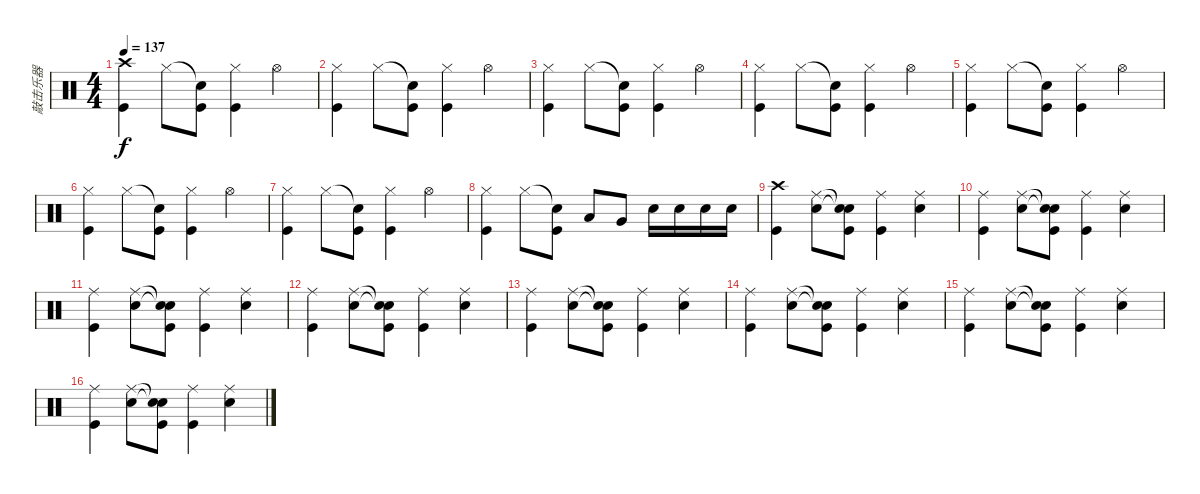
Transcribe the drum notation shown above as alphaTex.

\track ("敲击乐器" "敲击乐器") {instrument percussion}
\staff {score}
\articulation defaults
\ts (4 4)
\tempo 137
\clef neutral
\ks c
("Crash high (hit)" "Kick (hit)").4{dy f} "Hi-Hat (closed)".8 ("Snare (hit)"{t} "Kick (hit)").8 ("Hi-Hat (closed)" "Kick (hit)").4 "Hi-Hat (open)".4 |
("Hi-Hat (closed)" "Kick (hit)").4 "Hi-Hat (closed)".8 ("Snare (hit)"{t} "Kick (hit)").8 ("Hi-Hat (closed)" "Kick (hit)").4 "Hi-Hat (open)".4 |
("Hi-Hat (closed)" "Kick (hit)").4 "Hi-Hat (closed)".8 ("Snare (hit)"{t} "Kick (hit)").8 ("Hi-Hat (closed)" "Kick (hit)").4 "Hi-Hat (open)".4 |
("Hi-Hat (closed)" "Kick (hit)").4 "Hi-Hat (closed)".8 ("Snare (hit)"{t} "Kick (hit)").8 ("Hi-Hat (closed)" "Kick (hit)").4 "Hi-Hat (open)".4 |
("Hi-Hat (closed)" "Kick (hit)").4 "Hi-Hat (closed)".8 ("Snare (hit)"{t} "Kick (hit)").8 ("Hi-Hat (closed)" "Kick (hit)").4 "Hi-Hat (open)".4 |
("Hi-Hat (closed)" "Kick (hit)").4 "Hi-Hat (closed)".8 ("Snare (hit)"{t} "Kick (hit)").8 ("Hi-Hat (closed)" "Kick (hit)").4 "Hi-Hat (open)".4 |
("Hi-Hat (closed)" "Kick (hit)").4 "Hi-Hat (closed)".8 ("Snare (hit)"{t} "Kick (hit)").8 ("Hi-Hat (closed)" "Kick (hit)").4 "Hi-Hat (open)".4 |
("Hi-Hat (closed)" "Kick (hit)").4 "Hi-Hat (closed)".8 ("Snare (hit)"{t} "Kick (hit)").8 "Low Tom (hit)".8 "Very Low Tom (hit)".8 "Snare (hit) 2".16 "Snare (hit) 2".16 "Snare (hit) 2".16 "Snare (hit) 2".16 |
("Crash high (hit)" "Kick (hit)").4 ("Ride (middle)" "Snare (hit) 2").8 ("Snare (hit)"{t} "Snare (hit)"{t} "Kick (hit)").8 ("Ride (middle)" "Kick (hit)").4 ("Ride (middle)" "Snare (hit) 2").4 |
("Ride (middle)" "Kick (hit)").4 ("Ride (middle)" "Snare (hit) 2").8 ("Snare (hit)"{t} "Snare (hit)"{t} "Kick (hit)").8 ("Ride (middle)" "Kick (hit)").4 ("Ride (middle)" "Snare (hit) 2").4 |
("Ride (middle)" "Kick (hit)").4 ("Ride (middle)" "Snare (hit) 2").8 ("Snare (hit)"{t} "Snare (hit)"{t} "Kick (hit)").8 ("Ride (middle)" "Kick (hit)").4 ("Ride (middle)" "Snare (hit) 2").4 |
("Ride (middle)" "Kick (hit)").4 ("Ride (middle)" "Snare (hit) 2").8 ("Snare (hit)"{t} "Snare (hit)"{t} "Kick (hit)").8 ("Ride (middle)" "Kick (hit)").4 ("Ride (middle)" "Snare (hit) 2").4 |
("Ride (middle)" "Kick (hit)").4 ("Ride (middle)" "Snare (hit) 2").8 ("Snare (hit)"{t} "Snare (hit)"{t} "Kick (hit)").8 ("Ride (middle)" "Kick (hit)").4 ("Ride (middle)" "Snare (hit) 2").4 |
("Ride (middle)" "Kick (hit)").4 ("Ride (middle)" "Snare (hit) 2").8 ("Snare (hit)"{t} "Snare (hit)"{t} "Kick (hit)").8 ("Ride (middle)" "Kick (hit)").4 ("Ride (middle)" "Snare (hit) 2").4 |
("Ride (middle)" "Kick (hit)").4 ("Ride (middle)" "Snare (hit) 2").8 ("Snare (hit)"{t} "Snare (hit)"{t} "Kick (hit)").8 ("Ride (middle)" "Kick (hit)").4 ("Ride (middle)" "Snare (hit) 2").4 |
("Ride (middle)" "Kick (hit)").4 ("Ride (middle)" "Snare (hit) 2").8 ("Snare (hit)"{t} "Snare (hit)"{t} "Kick (hit)").8 ("Ride (middle)" "Kick (hit)").4 ("Ride (middle)" "Snare (hit) 2").4
